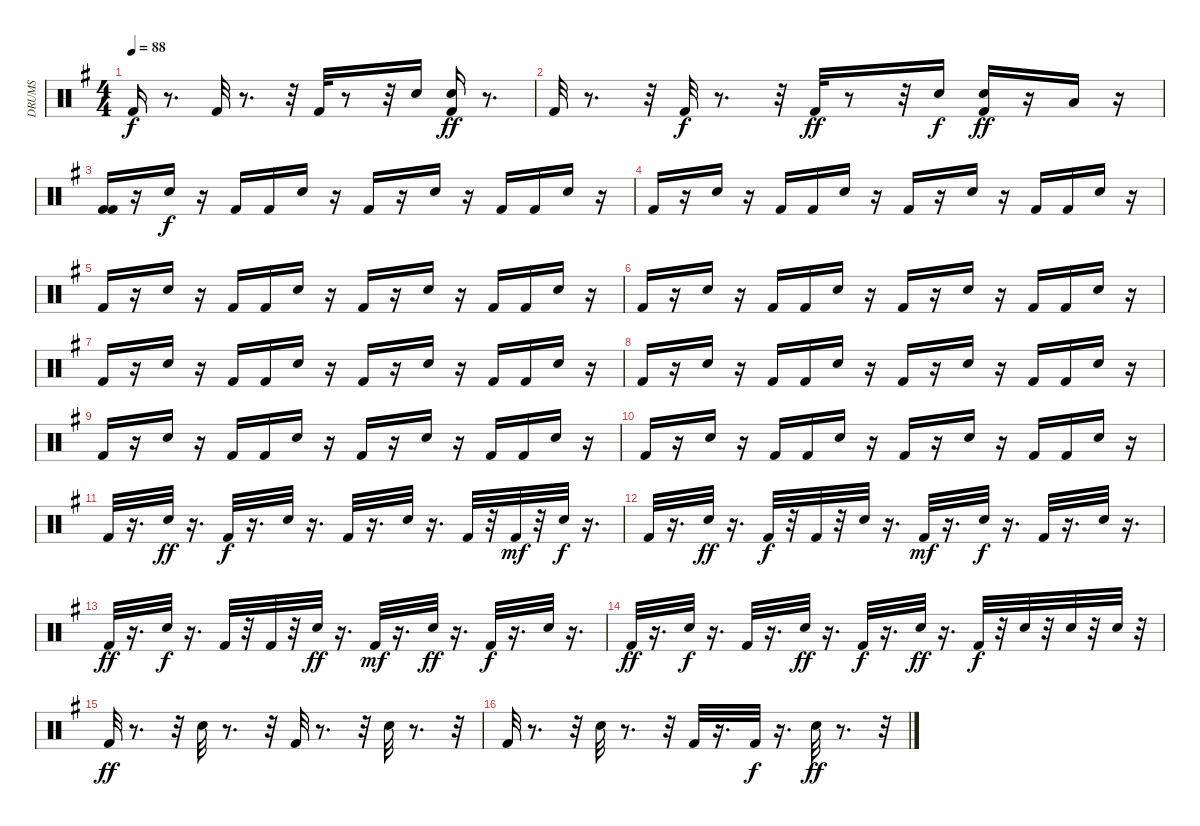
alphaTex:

\track ("DRUMS" "DRUMS") {instrument percussion}
\staff {score}
\articulation defaults
\ts (4 4)
\tempo 88
\clef neutral
\ks g "Kick (hit) 2".16{dy f}
r.8{d} "Kick (hit) 2".32 r.8{d} r.32 "Kick (hit) 2".32 r.8 r.32 "Electric Snare (hit)".16 ("Kick (hit) 2" "Electric Snare (hit)").16{dy ff} r.8{d} |
"Kick (hit) 2".32 r.8{d} r.32 "Kick (hit) 2".32{dy f} r.8{d} r.32 "Kick (hit) 2".32{dy ff} r.8 r.32 "Electric Snare (hit)".16{dy f} ("Kick (hit) 2" "Electric Snare (hit)").16{dy ff} r.16 "Low Floor Tom (hit)".16 r.16 |
("Kick (hit) 2" "Kick (hit) 2").16 r.16 "Electric Snare (hit)".16{dy f} r.16 "Kick (hit) 2".16 "Kick (hit) 2".16 "Electric Snare (hit)".16 r.16 "Kick (hit) 2".16 r.16 "Electric Snare (hit)".16 r.16 "Kick (hit) 2".16 "Kick (hit) 2".16 "Electric Snare (hit)".16 r.16 |
"Kick (hit) 2".16 r.16 "Electric Snare (hit)".16 r.16 "Kick (hit) 2".16 "Kick (hit) 2".16 "Electric Snare (hit)".16 r.16 "Kick (hit) 2".16 r.16 "Electric Snare (hit)".16 r.16 "Kick (hit) 2".16 "Kick (hit) 2".16 "Electric Snare (hit)".16 r.16 |
"Kick (hit) 2".16 r.16 "Electric Snare (hit)".16 r.16 "Kick (hit) 2".16 "Kick (hit) 2".16 "Electric Snare (hit)".16 r.16 "Kick (hit) 2".16 r.16 "Electric Snare (hit)".16 r.16 "Kick (hit) 2".16 "Kick (hit) 2".16 "Electric Snare (hit)".16 r.16 |
"Kick (hit) 2".16 r.16 "Electric Snare (hit)".16 r.16 "Kick (hit) 2".16 "Kick (hit) 2".16 "Electric Snare (hit)".16 r.16 "Kick (hit) 2".16 r.16 "Electric Snare (hit)".16 r.16 "Kick (hit) 2".16 "Kick (hit) 2".16 "Electric Snare (hit)".16 r.16 |
"Kick (hit) 2".16 r.16 "Electric Snare (hit)".16 r.16 "Kick (hit) 2".16 "Kick (hit) 2".16 "Electric Snare (hit)".16 r.16 "Kick (hit) 2".16 r.16 "Electric Snare (hit)".16 r.16 "Kick (hit) 2".16 "Kick (hit) 2".16 "Electric Snare (hit)".16 r.16 |
"Kick (hit) 2".16 r.16 "Electric Snare (hit)".16 r.16 "Kick (hit) 2".16 "Kick (hit) 2".16 "Electric Snare (hit)".16 r.16 "Kick (hit) 2".16 r.16 "Electric Snare (hit)".16 r.16 "Kick (hit) 2".16 "Kick (hit) 2".16 "Electric Snare (hit)".16 r.16 |
"Kick (hit) 2".16 r.16 "Electric Snare (hit)".16 r.16 "Kick (hit) 2".16 "Kick (hit) 2".16 "Electric Snare (hit)".16 r.16 "Kick (hit) 2".16 r.16 "Electric Snare (hit)".16 r.16 "Kick (hit) 2".16 "Kick (hit) 2".16 "Electric Snare (hit)".16 r.16 |
"Kick (hit) 2".16 r.16 "Electric Snare (hit)".16 r.16 "Kick (hit) 2".16 "Kick (hit) 2".16 "Electric Snare (hit)".16 r.16 "Kick (hit) 2".16 r.16 "Electric Snare (hit)".16 r.16 "Kick (hit) 2".16 "Kick (hit) 2".16 "Electric Snare (hit)".16 r.16 |
"Kick (hit) 2".32 r.16{d} "Electric Snare (hit)".32{dy ff} r.16{d} "Kick (hit) 2".32{dy f} r.16{d} "Electric Snare (hit)".32 r.16{d} "Kick (hit) 2".32 r.16{d} "Electric Snare (hit)".32 r.16{d} "Kick (hit) 2".32 r.32 "Kick (hit) 2".32{dy mf} r.32 "Electric Snare (hit)".32{dy f} r.16{d} |
"Kick (hit) 2".32 r.16{d} "Electric Snare (hit)".32{dy ff} r.16{d} "Kick (hit) 2".32{dy f} r.32 "Kick (hit) 2".32 r.32 "Electric Snare (hit)".32 r.16{d} "Kick (hit) 2".32{dy mf} r.16{d} "Electric Snare (hit)".32{dy f} r.16{d} "Kick (hit) 2".32 r.16{d} "Electric Snare (hit)".32 r.16{d} |
"Kick (hit) 2".32{dy ff} r.16{d} "Electric Snare (hit)".32{dy f} r.16{d} "Kick (hit) 2".32 r.32 "Kick (hit) 2".32 r.32 "Electric Snare (hit)".32{dy ff} r.16{d} "Kick (hit) 2".32{dy mf} r.16{d} "Electric Snare (hit)".32{dy ff} r.16{d} "Kick (hit) 2".32{dy f} r.16{d} "Electric Snare (hit)".32 r.16{d} |
"Kick (hit) 2".32{dy ff} r.16{d} "Electric Snare (hit)".32{dy f} r.16{d} "Kick (hit) 2".32 r.16{d} "Electric Snare (hit)".32{dy ff} r.16{d} "Kick (hit) 2".32{dy f} r.16{d} "Electric Snare (hit)".32{dy ff} r.16{d} "Kick (hit) 2".32{dy f} r.32 "Electric Snare (hit)".32 r.32 "Electric Snare (hit)".32 r.32 "Electric Snare (hit)".32 r.32 |
"Kick (hit) 2".32{dy ff} r.8{d} r.32 "Electric Snare (hit)".32 r.8{d} r.32 "Kick (hit) 2".32 r.8{d} r.32 "Electric Snare (hit)".32 r.8{d} r.32 |
"Kick (hit) 2".32 r.8{d} r.32 "Electric Snare (hit)".32 r.8{d} r.32 "Kick (hit) 2".32 r.16{d} "Kick (hit) 2".32{dy f} r.16{d} "Electric Snare (hit)".32{dy ff} r.8{d} r.32
